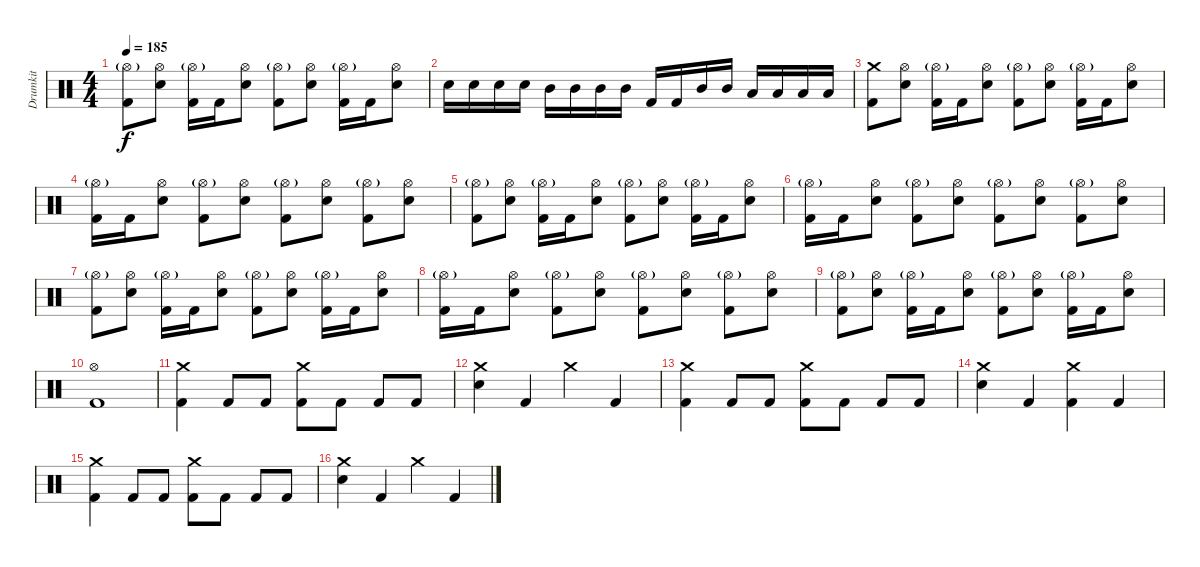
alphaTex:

\track ("Drumkit" "Drumkit") {instrument percussion}
\staff {score}
\articulation defaults
\ts (4 4)
\tempo 185
\clef neutral
\ks c
("Hi-Hat (open)"{g} "Kick (hit) 2").8{dy f} ("Hi-Hat (open)" "Snare (hit) 2").8 ("Hi-Hat (open)"{g} "Kick (hit) 2").16 "Kick (hit) 2".16 ("Hi-Hat (open)" "Snare (hit) 2").8 ("Hi-Hat (open)"{g} "Kick (hit) 2").8 ("Hi-Hat (open)" "Snare (hit) 2").8 ("Hi-Hat (open)"{g} "Kick (hit) 2").16 "Kick (hit) 2".16 ("Hi-Hat (open)" "Snare (hit) 2").8 |
"Snare (hit) 2".16 "Snare (hit) 2".16 "Snare (hit) 2".16 "Snare (hit) 2".16 "Mid Tom (hit)".16 "Mid Tom (hit)".16 "Mid Tom (hit)".16 "Mid Tom (hit)".16 "Kick (hit) 2".16 "Kick (hit) 2".16 "Mid Tom (hit)".16 "Mid Tom (hit)".16 "Low Tom (hit)".16 "Low Tom (hit)".16 "Low Tom (hit)".16 "Low Tom (hit)".16 |
("Crash medium (hit)" "Kick (hit) 2").8 ("Hi-Hat (open)" "Snare (hit) 2").8 ("Hi-Hat (open)"{g} "Kick (hit) 2").16 "Kick (hit) 2".16 ("Hi-Hat (open)" "Snare (hit) 2").8 ("Hi-Hat (open)"{g} "Kick (hit) 2").8 ("Hi-Hat (open)" "Snare (hit) 2").8 ("Hi-Hat (open)"{g} "Kick (hit) 2").16 "Kick (hit) 2".16 ("Hi-Hat (open)" "Snare (hit) 2").8 |
("Hi-Hat (open)"{g} "Kick (hit) 2").16 "Kick (hit) 2".16 ("Hi-Hat (open)" "Snare (hit) 2").8 ("Hi-Hat (open)"{g} "Kick (hit) 2").8 ("Hi-Hat (open)" "Snare (hit) 2").8 ("Hi-Hat (open)"{g} "Kick (hit) 2").8 ("Hi-Hat (open)" "Snare (hit) 2").8 ("Hi-Hat (open)"{g} "Kick (hit) 2").8 ("Hi-Hat (open)" "Snare (hit) 2").8 |
("Hi-Hat (open)"{g} "Kick (hit) 2").8 ("Hi-Hat (open)" "Snare (hit) 2").8 ("Hi-Hat (open)"{g} "Kick (hit) 2").16 "Kick (hit) 2".16 ("Hi-Hat (open)" "Snare (hit) 2").8 ("Hi-Hat (open)"{g} "Kick (hit) 2").8 ("Hi-Hat (open)" "Snare (hit) 2").8 ("Hi-Hat (open)"{g} "Kick (hit) 2").16 "Kick (hit) 2".16 ("Hi-Hat (open)" "Snare (hit) 2").8 |
("Hi-Hat (open)"{g} "Kick (hit) 2").16 "Kick (hit) 2".16 ("Hi-Hat (open)" "Snare (hit) 2").8 ("Hi-Hat (open)"{g} "Kick (hit) 2").8 ("Hi-Hat (open)" "Snare (hit) 2").8 ("Hi-Hat (open)"{g} "Kick (hit) 2").8 ("Hi-Hat (open)" "Snare (hit) 2").8 ("Hi-Hat (open)"{g} "Kick (hit) 2").8 ("Hi-Hat (open)" "Snare (hit) 2").8 |
("Hi-Hat (open)"{g} "Kick (hit) 2").8 ("Hi-Hat (open)" "Snare (hit) 2").8 ("Hi-Hat (open)"{g} "Kick (hit) 2").16 "Kick (hit) 2".16 ("Hi-Hat (open)" "Snare (hit) 2").8 ("Hi-Hat (open)"{g} "Kick (hit) 2").8 ("Hi-Hat (open)" "Snare (hit) 2").8 ("Hi-Hat (open)"{g} "Kick (hit) 2").16 "Kick (hit) 2".16 ("Hi-Hat (open)" "Snare (hit) 2").8 |
("Hi-Hat (open)"{g} "Kick (hit) 2").16 "Kick (hit) 2".16 ("Hi-Hat (open)" "Snare (hit) 2").8 ("Hi-Hat (open)"{g} "Kick (hit) 2").8 ("Hi-Hat (open)" "Snare (hit) 2").8 ("Hi-Hat (open)"{g} "Kick (hit) 2").8 ("Hi-Hat (open)" "Snare (hit) 2").8 ("Hi-Hat (open)"{g} "Kick (hit) 2").8 ("Hi-Hat (open)" "Snare (hit) 2").8 |
("Hi-Hat (open)"{g} "Kick (hit) 2").8 ("Hi-Hat (open)" "Snare (hit) 2").8 ("Hi-Hat (open)"{g} "Kick (hit) 2").16 "Kick (hit) 2".16 ("Hi-Hat (open)" "Snare (hit) 2").8 ("Hi-Hat (open)"{g} "Kick (hit) 2").8 ("Hi-Hat (open)" "Snare (hit) 2").8 ("Hi-Hat (open)"{g} "Kick (hit) 2").16 "Kick (hit) 2".16 ("Hi-Hat (open)" "Snare (hit) 2").8 |
("Hi-Hat (open)" "Kick (hit) 2").1 |
("Crash medium (hit)" "Kick (hit) 2").4 "Kick (hit) 2".8 "Kick (hit) 2".8 ("Crash medium (hit)" "Kick (hit) 2").8 "Kick (hit) 2".8 "Kick (hit) 2".8 "Kick (hit) 2".8 |
("Crash medium (hit)" "Snare (hit) 2").4 "Kick (hit) 2".4 "Crash medium (hit)".4 "Kick (hit) 2".4 |
("Crash medium (hit)" "Kick (hit) 2").4 "Kick (hit) 2".8 "Kick (hit) 2".8 ("Crash medium (hit)" "Kick (hit) 2").8 "Kick (hit) 2".8 "Kick (hit) 2".8 "Kick (hit) 2".8 |
("Crash medium (hit)" "Snare (hit) 2").4 "Kick (hit) 2".4 ("Crash medium (hit)" "Kick (hit) 2").4 "Kick (hit) 2".4 |
("Crash medium (hit)" "Kick (hit) 2").4 "Kick (hit) 2".8 "Kick (hit) 2".8 ("Crash medium (hit)" "Kick (hit) 2").8 "Kick (hit) 2".8 "Kick (hit) 2".8 "Kick (hit) 2".8 |
("Crash medium (hit)" "Snare (hit) 2").4 "Kick (hit) 2".4 "Crash medium (hit)".4 "Kick (hit) 2".4
